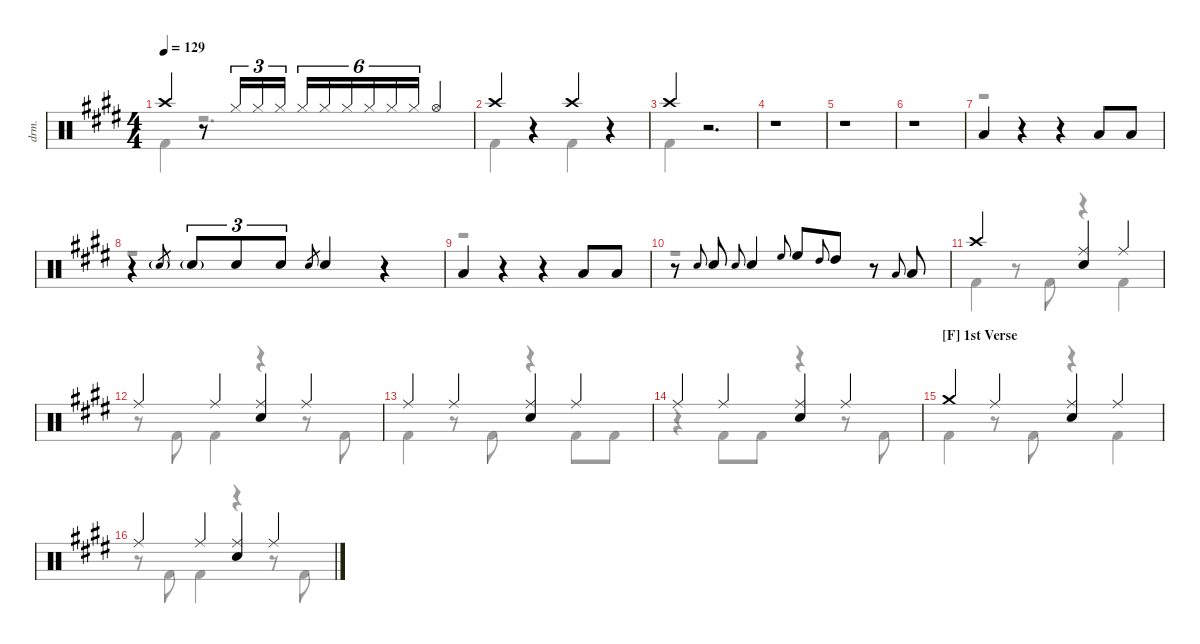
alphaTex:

\defaultSystemsLayout 4
\hideDynamics
\bracketExtendMode nobrackets
\track ("Drums" "drm.") {instrument percussion}
\staff {score}
\articulation defaults
\voice
\ts (4 4)
\tempo 129
\clef neutral
\scale
1.54969
\ks e "Crash high (hit)"{acc forcenatural}.4{dy mf}
r.8 "Hi-Hat (closed)"{acc forcenatural}.16{tu (3 2)} "Hi-Hat (closed)"{acc forcenatural}.16{tu (3 2)} "Hi-Hat (closed)"{acc forcenatural}.16{tu (3 2)} "Hi-Hat (closed)"{acc forcenatural}.16{tu (6 4)} "Hi-Hat (closed)"{acc forcenatural}.16{tu (6 4)} "Hi-Hat (closed)"{acc forcenatural}.16{tu (6 4)} "Hi-Hat (closed)"{acc forcenatural}.16{tu (6 4)} "Hi-Hat (closed)"{acc forcenatural}.16{tu (6 4)} "Hi-Hat (closed)"{acc forcenatural}.16{tu (6 4)} "Hi-Hat (open)"{acc forcenatural}.4 |
\scale
1.38128 "Crash high (hit)"{acc forcenatural}.4 r.4 "Crash high (hit)"{acc forcenatural}.4 r.4 |
\scale
1.92845 "Crash high (hit)"{acc forcenatural}.4 r.2{d} |
\scale
0.442375 r.1 |
\scale
0.324234 r.1 |
\scale
0.373981 r.1 |
"Low Tom (hit)"{acc forcenatural}.4 r.4 r.4 "Low Tom (hit)"{acc forcenatural}.8 "Low Tom (hit)"{acc forcenatural}.8 |
r.4 "Snare (hit) 2"{g acc forcenatural}.8{gr} "Snare (hit) 2"{g acc forcenatural}.8{tu (3 2)} "Snare (hit) 2"{acc forcenatural}.8{tu (3 2)} "Snare (hit) 2"{acc forcenatural}.8{tu (3 2)} "Snare (hit) 2"{acc forcenatural}.8{gr} "Snare (hit) 2"{acc forcenatural}.4 r.4 |
"Low Tom (hit)"{acc forcenatural}.4 r.4 r.4 "Low Tom (hit)"{acc forcenatural}.8 "Low Tom (hit)"{acc forcenatural}.8 |
r.8 "Snare (hit) 2"{acc forcenatural}.8{gr onbeat} "Snare (hit) 2"{acc forcenatural}.8 "Snare (hit) 2"{acc forcenatural}.8{gr onbeat} "Snare (hit) 2"{acc forcenatural}.4 "High Floor Tom (hit)"{acc forcenatural}.8{gr onbeat} "High Floor Tom (hit)"{acc forcenatural}.8 "High Tom (hit)"{acc forcenatural}.8{gr onbeat} "High Tom (hit)"{acc forcenatural}.8 r.8 "Low Tom (hit)"{acc forcenatural}.8{gr onbeat} "Low Tom (hit)"{acc forcenatural}.8 |
"Crash high (hit)"{acc forcenatural}.2 ("Ride (middle)"{acc forcenatural} "Snare (hit) 2"{acc forcenatural}).4 "Ride (middle)"{acc forcenatural}.4 |
"Ride (middle)"{acc forcenatural}.4 "Ride (middle)"{acc forcenatural}.4 ("Ride (middle)"{acc forcenatural} "Snare (hit) 2"{acc forcenatural}).4 "Ride (middle)"{acc forcenatural}.4 |
"Ride (middle)"{acc forcenatural}.4 "Ride (middle)"{acc forcenatural}.4 ("Ride (middle)"{acc forcenatural} "Snare (hit) 2"{acc forcenatural}).4 "Ride (middle)"{acc forcenatural}.4 |
"Ride (middle)"{acc forcenatural}.4 "Ride (middle)"{acc forcenatural}.4 ("Ride (middle)"{acc forcenatural} "Snare (hit) 2"{acc forcenatural}).4 "Ride (middle)"{acc forcenatural}.4 |
\section ("F" "1st Verse")
"Crash medium (hit)"{acc forcenatural}.4 "Ride (middle)"{acc forcenatural}.4 ("Ride (middle)"{acc forcenatural} "Snare (hit) 2"{acc forcenatural}).4 "Ride (middle)"{acc forcenatural}.4 |
"Ride (middle)"{acc forcenatural}.4 "Ride (middle)"{acc forcenatural}.4 ("Ride (middle)"{acc forcenatural} "Snare (hit) 2"{acc forcenatural}).4 "Ride (middle)"{acc forcenatural}.4
\voice
\clef neutral
\ottava regular
\simile none
\scale
1.54969
\ks e "Kick (hit) 2"{acc forcenatural}.4{dy mf}
r.2{d} |
\scale
1.38128 "Kick (hit) 2"{acc forcenatural}.4 r.4 "Kick (hit) 2"{acc forcenatural}.4 r.4 |
\scale
1.92845 "Kick (hit) 2"{acc forcenatural}.4 r.2{d} |
\scale
0.442375 r.1 |
\scale
0.324234 r.1 |
\scale
0.373981 r.1 |
r.1 |
r.1 |
r.1 |
r.1 |
"Kick (hit) 2"{acc forcenatural}.4 r.8 "Kick (hit) 2"{acc forcenatural}.8 r.4 "Kick (hit) 2"{acc forcenatural}.4 |
r.8 "Kick (hit) 2"{acc forcenatural}.8 "Kick (hit) 2"{acc forcenatural}.4 r.4 r.8 "Kick (hit) 2"{acc forcenatural}.8 |
"Kick (hit) 2"{acc forcenatural}.4 r.8 "Kick (hit) 2"{acc forcenatural}.8 r.4 "Kick (hit) 2"{acc forcenatural}.8 "Kick (hit) 2"{acc forcenatural}.8 |
r.4 "Kick (hit) 2"{acc forcenatural}.8 "Kick (hit) 2"{acc forcenatural}.8 r.4 r.8 "Kick (hit) 2"{acc forcenatural}.8 |
"Kick (hit) 2"{acc forcenatural}.4 r.8 "Kick (hit) 2"{acc forcenatural}.8 r.4 "Kick (hit) 2"{acc forcenatural}.4 |
r.8 "Kick (hit) 2"{acc forcenatural}.8 "Kick (hit) 2"{acc forcenatural}.4 r.4 r.8 "Kick (hit) 2"{acc forcenatural}.8
